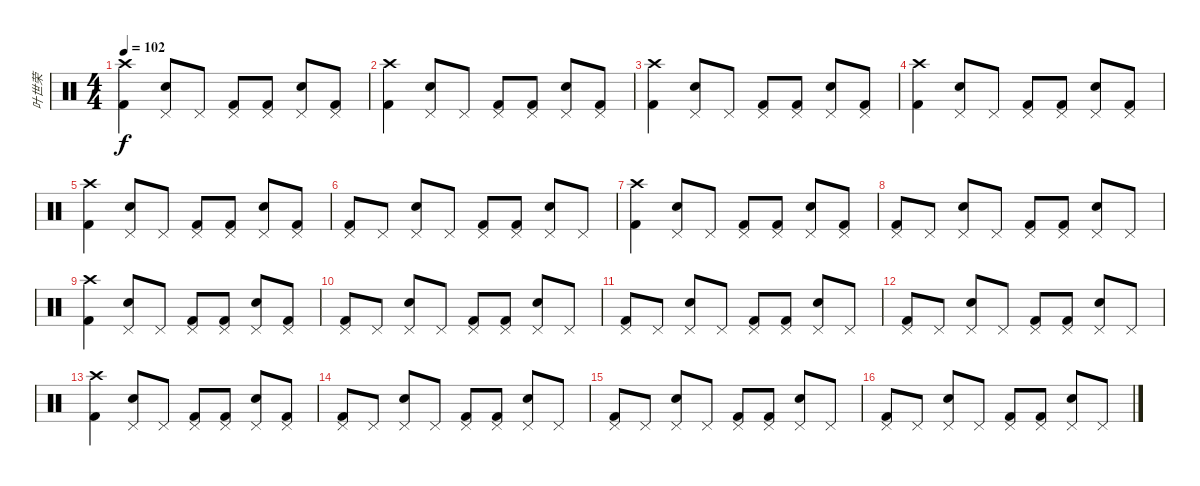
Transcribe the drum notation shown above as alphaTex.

\track ("叶世荣" "叶世荣") {instrument percussion}
\staff {score}
\articulation defaults
\ts (4 4)
\tempo 102
\clef neutral
\ks c
("Crash high (hit)" "Kick (hit) 2").4{dy f} ("Pedal Hi-Hat (hit)" "Snare (hit) 2").8 "Pedal Hi-Hat (hit)".8 ("Pedal Hi-Hat (hit)" "Kick (hit) 2").8 ("Pedal Hi-Hat (hit)" "Kick (hit) 2").8 ("Pedal Hi-Hat (hit)" "Snare (hit) 2").8 ("Pedal Hi-Hat (hit)" "Kick (hit) 2").8 |
("Crash high (hit)" "Kick (hit) 2").4 ("Pedal Hi-Hat (hit)" "Snare (hit) 2").8 "Pedal Hi-Hat (hit)".8 ("Pedal Hi-Hat (hit)" "Kick (hit) 2").8 ("Pedal Hi-Hat (hit)" "Kick (hit) 2").8 ("Pedal Hi-Hat (hit)" "Snare (hit) 2").8 ("Pedal Hi-Hat (hit)" "Kick (hit) 2").8 |
("Crash high (hit)" "Kick (hit) 2").4 ("Pedal Hi-Hat (hit)" "Snare (hit) 2").8 "Pedal Hi-Hat (hit)".8 ("Pedal Hi-Hat (hit)" "Kick (hit) 2").8 ("Pedal Hi-Hat (hit)" "Kick (hit) 2").8 ("Pedal Hi-Hat (hit)" "Snare (hit) 2").8 ("Pedal Hi-Hat (hit)" "Kick (hit) 2").8 |
("Crash high (hit)" "Kick (hit) 2").4 ("Pedal Hi-Hat (hit)" "Snare (hit) 2").8 "Pedal Hi-Hat (hit)".8 ("Pedal Hi-Hat (hit)" "Kick (hit) 2").8 ("Pedal Hi-Hat (hit)" "Kick (hit) 2").8 ("Pedal Hi-Hat (hit)" "Snare (hit) 2").8 ("Pedal Hi-Hat (hit)" "Kick (hit) 2").8 |
("Crash high (hit)" "Kick (hit) 2").4 ("Pedal Hi-Hat (hit)" "Snare (hit) 2").8 "Pedal Hi-Hat (hit)".8 ("Pedal Hi-Hat (hit)" "Kick (hit) 2").8 ("Pedal Hi-Hat (hit)" "Kick (hit) 2").8 ("Pedal Hi-Hat (hit)" "Snare (hit) 2").8 ("Pedal Hi-Hat (hit)" "Kick (hit) 2").8 |
("Pedal Hi-Hat (hit)" "Kick (hit) 2").8 "Pedal Hi-Hat (hit)".8 ("Pedal Hi-Hat (hit)" "Snare (hit) 2").8 "Pedal Hi-Hat (hit)".8 ("Pedal Hi-Hat (hit)" "Kick (hit) 2").8 ("Pedal Hi-Hat (hit)" "Kick (hit) 2").8 ("Pedal Hi-Hat (hit)" "Snare (hit) 2").8 "Pedal Hi-Hat (hit)".8 |
("Crash high (hit)" "Kick (hit) 2").4 ("Pedal Hi-Hat (hit)" "Snare (hit) 2").8 "Pedal Hi-Hat (hit)".8 ("Pedal Hi-Hat (hit)" "Kick (hit) 2").8 ("Pedal Hi-Hat (hit)" "Kick (hit) 2").8 ("Pedal Hi-Hat (hit)" "Snare (hit) 2").8 ("Pedal Hi-Hat (hit)" "Kick (hit) 2").8 |
("Pedal Hi-Hat (hit)" "Kick (hit) 2").8 "Pedal Hi-Hat (hit)".8 ("Pedal Hi-Hat (hit)" "Snare (hit) 2").8 "Pedal Hi-Hat (hit)".8 ("Pedal Hi-Hat (hit)" "Kick (hit) 2").8 ("Pedal Hi-Hat (hit)" "Kick (hit) 2").8 ("Pedal Hi-Hat (hit)" "Snare (hit) 2").8 "Pedal Hi-Hat (hit)".8 |
("Crash high (hit)" "Kick (hit) 2").4 ("Pedal Hi-Hat (hit)" "Snare (hit) 2").8 "Pedal Hi-Hat (hit)".8 ("Pedal Hi-Hat (hit)" "Kick (hit) 2").8 ("Pedal Hi-Hat (hit)" "Kick (hit) 2").8 ("Pedal Hi-Hat (hit)" "Snare (hit) 2").8 ("Pedal Hi-Hat (hit)" "Kick (hit) 2").8 |
("Pedal Hi-Hat (hit)" "Kick (hit) 2").8 "Pedal Hi-Hat (hit)".8 ("Pedal Hi-Hat (hit)" "Snare (hit) 2").8 "Pedal Hi-Hat (hit)".8 ("Pedal Hi-Hat (hit)" "Kick (hit) 2").8 ("Pedal Hi-Hat (hit)" "Kick (hit) 2").8 ("Pedal Hi-Hat (hit)" "Snare (hit) 2").8 "Pedal Hi-Hat (hit)".8 |
("Pedal Hi-Hat (hit)" "Kick (hit) 2").8 "Pedal Hi-Hat (hit)".8 ("Pedal Hi-Hat (hit)" "Snare (hit) 2").8 "Pedal Hi-Hat (hit)".8 ("Pedal Hi-Hat (hit)" "Kick (hit) 2").8 ("Pedal Hi-Hat (hit)" "Kick (hit) 2").8 ("Pedal Hi-Hat (hit)" "Snare (hit) 2").8 "Pedal Hi-Hat (hit)".8 |
("Pedal Hi-Hat (hit)" "Kick (hit) 2").8 "Pedal Hi-Hat (hit)".8 ("Pedal Hi-Hat (hit)" "Snare (hit) 2").8 "Pedal Hi-Hat (hit)".8 ("Pedal Hi-Hat (hit)" "Kick (hit) 2").8 ("Pedal Hi-Hat (hit)" "Kick (hit) 2").8 ("Pedal Hi-Hat (hit)" "Snare (hit) 2").8 "Pedal Hi-Hat (hit)".8 |
("Crash high (hit)" "Kick (hit) 2").4 ("Pedal Hi-Hat (hit)" "Snare (hit) 2").8 "Pedal Hi-Hat (hit)".8 ("Pedal Hi-Hat (hit)" "Kick (hit) 2").8 ("Pedal Hi-Hat (hit)" "Kick (hit) 2").8 ("Pedal Hi-Hat (hit)" "Snare (hit) 2").8 ("Pedal Hi-Hat (hit)" "Kick (hit) 2").8 |
("Pedal Hi-Hat (hit)" "Kick (hit) 2").8 "Pedal Hi-Hat (hit)".8 ("Pedal Hi-Hat (hit)" "Snare (hit) 2").8 "Pedal Hi-Hat (hit)".8 ("Pedal Hi-Hat (hit)" "Kick (hit) 2").8 ("Pedal Hi-Hat (hit)" "Kick (hit) 2").8 ("Pedal Hi-Hat (hit)" "Snare (hit) 2").8 "Pedal Hi-Hat (hit)".8 |
("Pedal Hi-Hat (hit)" "Kick (hit) 2").8 "Pedal Hi-Hat (hit)".8 ("Pedal Hi-Hat (hit)" "Snare (hit) 2").8 "Pedal Hi-Hat (hit)".8 ("Pedal Hi-Hat (hit)" "Kick (hit) 2").8 ("Pedal Hi-Hat (hit)" "Kick (hit) 2").8 ("Pedal Hi-Hat (hit)" "Snare (hit) 2").8 "Pedal Hi-Hat (hit)".8 |
("Pedal Hi-Hat (hit)" "Kick (hit) 2").8 "Pedal Hi-Hat (hit)".8 ("Pedal Hi-Hat (hit)" "Snare (hit) 2").8 "Pedal Hi-Hat (hit)".8 ("Pedal Hi-Hat (hit)" "Kick (hit) 2").8 ("Pedal Hi-Hat (hit)" "Kick (hit) 2").8 ("Pedal Hi-Hat (hit)" "Snare (hit) 2").8 "Pedal Hi-Hat (hit)".8
